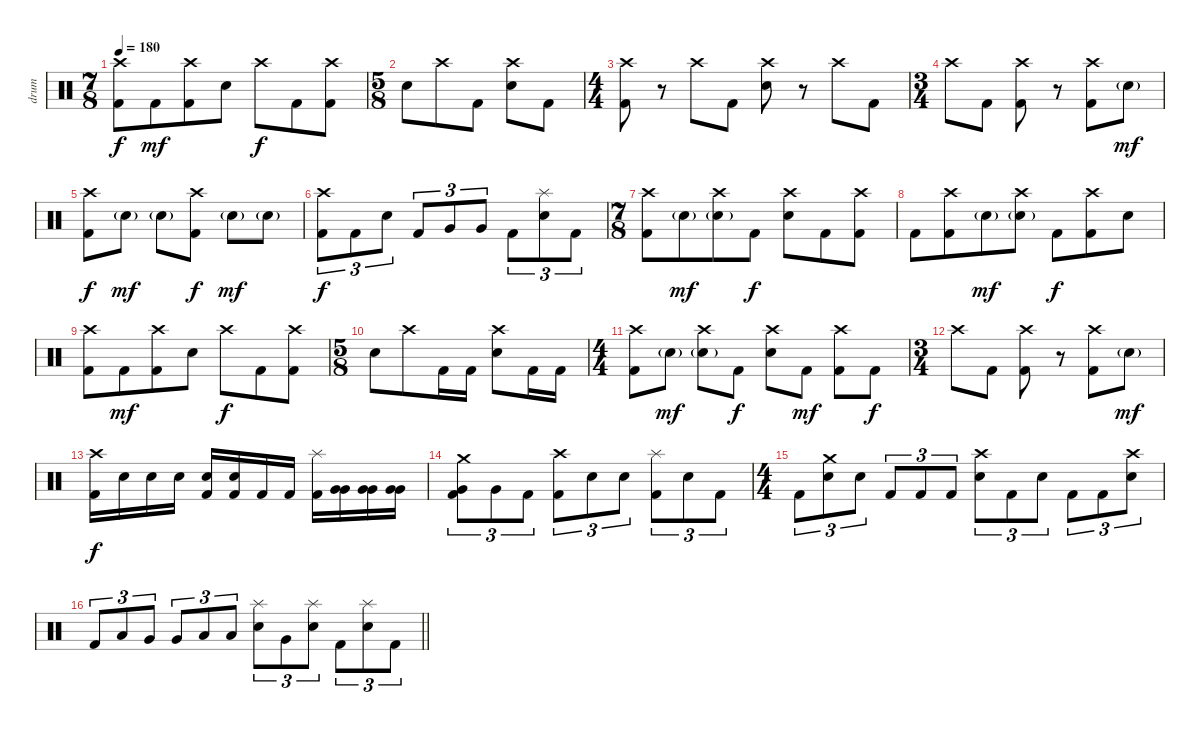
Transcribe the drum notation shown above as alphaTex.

\track ("drum" "drum") {instrument percussion}
\staff {score}
\articulation defaults
\ts (7 8)
\tempo 180
\clef neutral
\ks c
("Crash high (hit)" "Kick (hit) 2").8{dy f} "Kick (hit) 2".8{dy mf} ("Crash high (hit)" "Kick (hit) 2").8 "Electric Snare (hit)".8 "Crash high (hit)".8{dy f} "Kick (hit) 2".8 ("Crash high (hit)" "Kick (hit) 2").8 |
\ts (5 8)
"Electric Snare (hit)".8 "Crash high (hit)".8 "Kick (hit) 2".8 ("Crash high (hit)" "Electric Snare (hit)").8 "Kick (hit) 2".8 |
\ts (4 4)
("Crash high (hit)" "Kick (hit) 2").8 r.8 "Crash high (hit)".8 "Kick (hit) 2".8 ("Crash high (hit)" "Electric Snare (hit)").8 r.8 "Crash high (hit)".8 "Kick (hit) 2".8 |
\ts (3 4)
"Crash high (hit)".8 "Kick (hit) 2".8 ("Crash high (hit)" "Kick (hit) 2").8 r.8 ("Crash high (hit)" "Kick (hit) 2").8 "Electric Snare (hit)"{g}.8{dy mf} |
("Crash high (hit)" "Kick (hit) 2").8{dy f} "Electric Snare (hit)"{g}.8{dy mf} "Electric Snare (hit)"{g}.8 ("Crash high (hit)" "Kick (hit) 2").8{dy f} "Electric Snare (hit)"{g}.8{dy mf} "Electric Snare (hit)"{g}.8 |
("Crash high (hit)" "Kick (hit) 2").8{tu (3 2) dy f} "Kick (hit) 2".8{tu (3 2)} "Electric Snare (hit)".8{tu (3 2)} "Kick (hit) 2".8{tu (3 2)} "Very Low Tom (hit)".8{tu (3 2)} "Very Low Tom (hit)".8{tu (3 2)} "Kick (hit) 2".8{tu (3 2)} ("Splash (hit)" "Electric Snare (hit)").8{tu (3 2)} "Kick (hit) 2".8{tu (3 2)} |
\ts (7 8)
("Crash high (hit)" "Kick (hit) 2").8 "Electric Snare (hit)"{g}.8{dy mf} ("Crash high (hit)" "Electric Snare (hit)"{g}).8 "Kick (hit) 2".8{dy f} ("Crash high (hit)" "Electric Snare (hit)").8 "Kick (hit) 2".8 ("Crash high (hit)" "Kick (hit) 2").8 |
"Kick (hit) 2".8 ("Crash high (hit)" "Kick (hit) 2").8 "Electric Snare (hit)"{g}.8{dy mf} ("Crash high (hit)" "Electric Snare (hit)"{g}).8 "Kick (hit) 2".8{dy f} ("Crash high (hit)" "Kick (hit) 2").8 "Electric Snare (hit)".8 |
("Crash high (hit)" "Kick (hit) 2").8 "Kick (hit) 2".8{dy mf} ("Crash high (hit)" "Kick (hit) 2").8 "Electric Snare (hit)".8 "Crash high (hit)".8{dy f} "Kick (hit) 2".8 ("Crash high (hit)" "Kick (hit) 2").8 |
\ts (5 8)
"Electric Snare (hit)".8 "Crash high (hit)".8 "Kick (hit) 2".16 "Kick (hit) 2".16 ("Crash high (hit)" "Electric Snare (hit)").8 "Kick (hit) 2".16 "Kick (hit) 2".16 |
\ts (4 4)
("Crash high (hit)" "Kick (hit) 2").8 "Electric Snare (hit)"{g}.8{dy mf} ("Crash high (hit)" "Electric Snare (hit)"{g}).8 "Kick (hit) 2".8{dy f} ("Crash high (hit)" "Electric Snare (hit)").8 "Kick (hit) 2".8{dy mf} ("Crash high (hit)" "Kick (hit) 2").8 "Kick (hit) 2".8{dy f} |
\ts (3 4)
"Crash high (hit)".8 "Kick (hit) 2".8 ("Crash high (hit)" "Kick (hit) 2").8 r.8 ("Crash high (hit)" "Kick (hit) 2").8 "Electric Snare (hit)"{g}.8{dy mf} |
("Crash high (hit)" "Kick (hit) 2").16{dy f} "Electric Snare (hit)".16 "Electric Snare (hit)".16 "Electric Snare (hit)".16 ("Electric Snare (hit)" "Kick (hit) 2").16 ("Electric Snare (hit)" "Kick (hit) 2").16 "Kick (hit) 2".16 "Kick (hit) 2".16 ("Splash (hit)" "Kick (hit) 2").16 ("Very Low Tom (hit)" "Very Low Tom (hit)").16 ("Very Low Tom (hit)" "Very Low Tom (hit)").16 ("Very Low Tom (hit)" "Very Low Tom (hit)").16 |
("Crash medium (hit)" "Very Low Tom (hit)" "Kick (hit) 2").8{tu (3 2)} "Very Low Tom (hit)".8{tu (3 2)} "Kick (hit) 2".8{tu (3 2)} ("Crash high (hit)" "Kick (hit) 2").8{tu (3 2)} "Electric Snare (hit)".8{tu (3 2)} "Electric Snare (hit)".8{tu (3 2)} ("Splash (hit)" "Kick (hit) 2").8{tu (3 2)} "Electric Snare (hit)".8{tu (3 2)} "Kick (hit) 2".8{tu (3 2)} |
\ts (4 4)
"Kick (hit) 2".8{tu (3 2)} ("Crash medium (hit)" "Electric Snare (hit)").8{tu (3 2)} "Electric Snare (hit)".8{tu (3 2)} "Kick (hit) 2".8{tu (3 2)} "Kick (hit) 2".8{tu (3 2)} "Kick (hit) 2".8{tu (3 2)} ("Crash high (hit)" "Electric Snare (hit)").8{tu (3 2)} "Kick (hit) 2".8{tu (3 2)} "Electric Snare (hit)".8{tu (3 2)} "Kick (hit) 2".8{tu (3 2)} "Kick (hit) 2".8{tu (3 2)} ("Crash high (hit)" "Electric Snare (hit)").8{tu (3 2)} |
\barLineRight lightlight "Kick (hit) 2".8{tu (3 2)} "Low Tom (hit)".8{tu (3 2)} "Very Low Tom (hit)".8{tu (3 2)} "Very Low Tom (hit)".8{tu (3 2)} "Low Floor Tom (hit)".8{tu (3 2)} "Low Tom (hit)".8{tu (3 2)}
("Splash (hit)" "Electric Snare (hit)").8{tu (3 2)} "Very Low Tom (hit)".8{tu (3 2)} ("Splash (hit)" "Electric Snare (hit)").8{tu (3 2)} "Kick (hit) 2".8{tu (3 2)} ("Splash (hit)" "Electric Snare (hit)").8{tu (3 2)} "Kick (hit) 2".8{tu (3 2)}
